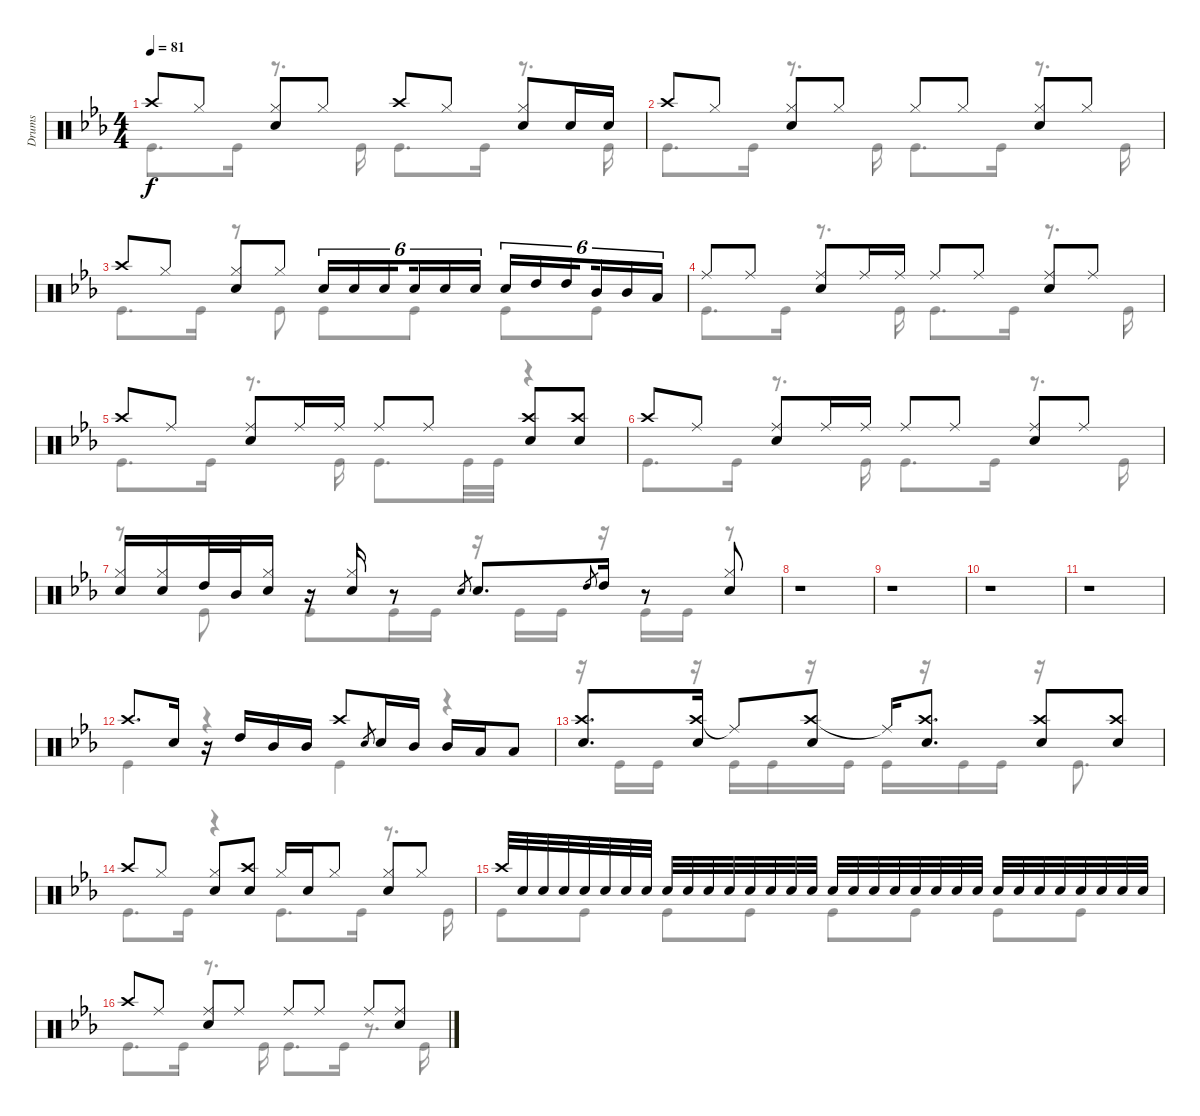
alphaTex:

\track ("Drums" "Drums") {instrument percussion}
\staff {score}
\articulation defaults
\voice
\ts (4 4)
\tempo 81
\clef neutral
\ks eb "Crash high (hit)".8{dy f beam Up} "Hi-Hat (closed)".8{beam Up}
("Hi-Hat (closed)" "Snare (hit) 2").8{beam Up} "Hi-Hat (closed)".8{beam Up} "Crash high (hit)".8{beam Up} "Hi-Hat (closed)".8{beam Up} ("Hi-Hat (closed)" "Snare (hit) 2").8{beam Up} "Snare (hit) 2".16{beam Up} "Snare (hit) 2".16{beam Up} |
"Crash high (hit)".8{beam Up} "Hi-Hat (closed)".8{beam Up} ("Hi-Hat (closed)" "Snare (hit) 2").8{beam Up} "Hi-Hat (closed)".8{beam Up} "Hi-Hat (closed)".8{beam Up} "Hi-Hat (closed)".8{beam Up} ("Hi-Hat (closed)" "Snare (hit) 2").8{beam Up} "Hi-Hat (closed)".8{beam Up} |
"Crash high (hit)".8{beam Up} "Hi-Hat (closed)".8{beam Up} ("Hi-Hat (closed)" "Snare (hit) 2").8{beam Up} "Hi-Hat (closed)".8{beam Up} "Snare (hit) 2".16{tu (6 4) beam Up} "Snare (hit) 2".16{tu (6 4) beam Up} "Snare (hit) 2".16{tu (6 4) beam Up beam splitsecondary} "Snare (hit) 2".16{tu (6 4) beam Up} "Snare (hit) 2".16{tu (6 4) beam Up} "Snare (hit) 2".16{tu (6 4) beam Up} "Snare (hit) 2".16{tu (6 4) beam Up} "High Tom (hit)".16{tu (6 4) beam Up} "High Tom (hit)".16{tu (6 4) beam Up beam splitsecondary} "Mid Tom (hit)".16{tu (6 4) beam Up} "Mid Tom (hit)".16{tu (6 4) beam Up} "Low Tom (hit)".16{tu (6 4) beam Up} |
"Ride (middle)".8{beam Up} "Ride (middle)".8{beam Up} ("Ride (middle)" "Snare (hit) 2").8{beam Up} "Ride (middle)".16{beam Up} "Ride (middle)".16{beam Up} "Ride (middle)".8{beam Up} "Ride (middle)".8{beam Up} ("Ride (middle)" "Snare (hit) 2").8{beam Up} "Ride (middle)".8{beam Up} |
"Crash high (hit)".8{beam Up} "Ride (middle)".8{beam Up} ("Ride (middle)" "Snare (hit) 2").8{beam Up} "Ride (middle)".16{beam Up} "Ride (middle)".16{beam Up} "Ride (middle)".8{beam Up} "Ride (middle)".8{beam Up} ("Crash high (hit)" "Snare (hit) 2").8{beam Up} ("Snare (hit) 2" "Crash high (hit)").8{beam Up} |
"Crash high (hit)".8{beam Up} "Ride (middle)".8{beam Up} ("Ride (middle)" "Snare (hit) 2").8{beam Up} "Ride (middle)".16{beam Up} "Ride (middle)".16{beam Up} "Ride (middle)".8{beam Up} "Ride (middle)".8{beam Up} ("Ride (middle)" "Snare (hit) 2").8{beam Up} "Ride (middle)".8{beam Up} |
("Snare (hit) 2" "Hi-Hat (closed)").16{beam Up} ("Hi-Hat (closed)" "Snare (hit) 2").16{beam Up} "High Tom (hit)".32{beam Up} "Mid Tom (hit)".32{beam Up} ("Snare (hit) 2" "Hi-Hat (closed)").16{beam Up} r.16 ("Snare (hit) 2" "Hi-Hat (closed)").16{beam Up} r.8 "Snare (hit) 2".8{gr} "Snare (hit) 2".8{d beam Up} "High Tom (hit)".8{gr} "High Tom (hit)".16{beam Up} r.8 ("Snare (hit) 2" "Hi-Hat (closed)").8{beam Up} |
r.1 |
r.1 |
r.1 |
r.1 |
"Crash high (hit)".8{d beam Up} "Snare (hit) 2".16{beam Up} r.16 "High Tom (hit)".16{beam Up} "Mid Tom (hit)".16{beam Up} "Mid Tom (hit)".16{beam Up} "Crash high (hit)".8{beam Up} "Snare (hit) 2".8{gr} "Snare (hit) 2".16{beam Up} "Mid Tom (hit)".16{beam Up} "Mid Tom (hit)".16{beam Up} "Low Tom (hit)".16{beam Up} "Low Tom (hit)".8{beam Up} |
("Snare (hit) 2" "Crash high (hit)").8{d beam Up} ("Crash high (hit)" "Snare (hit) 2").16{beam Up} "Ride (middle)"{t}.8{beam Up} ("Crash high (hit)" "Snare (hit) 2").8{beam Up} "Ride (middle)"{t}.16{beam Up} ("Crash high (hit)" "Snare (hit) 2").8{d beam Up} ("Snare (hit) 2" "Crash high (hit)").8{beam Up} ("Crash high (hit)" "Snare (hit) 2").8{beam Up} |
"Crash high (hit)".8{beam Up} "Hi-Hat (closed)".8{beam Up} ("Hi-Hat (closed)" "Snare (hit) 2").8{beam Up} ("Snare (hit) 2" "Crash high (hit)").8{beam Up} "Hi-Hat (closed)".16{beam Up} "Snare (hit) 2".16{beam Up} "Hi-Hat (closed)".8{beam Up} ("Snare (hit) 2" "Hi-Hat (closed)").8{beam Up} "Hi-Hat (closed)".8{beam Up} |
"Crash high (hit)".32{beam Up} "Snare (hit) 2".32{beam Up} "Snare (hit) 2".32{beam Up} "Snare (hit) 2".32{beam Up} "Snare (hit) 2".32{beam Up} "Snare (hit) 2".32{beam Up} "Snare (hit) 2".32{beam Up} "Snare (hit) 2".32{beam Up} "Snare (hit) 2".32{beam Up} "Snare (hit) 2".32{beam Up} "Snare (hit) 2".32{beam Up} "Snare (hit) 2".32{beam Up} "Snare (hit) 2".32{beam Up} "Snare (hit) 2".32{beam Up} "Snare (hit) 2".32{beam Up} "Snare (hit) 2".32{beam Up} "Snare (hit) 2".32{beam Up} "Snare (hit) 2".32{beam Up} "Snare (hit) 2".32{beam Up} "Snare (hit) 2".32{beam Up} "Snare (hit) 2".32{beam Up} "Snare (hit) 2".32{beam Up} "Snare (hit) 2".32{beam Up} "Snare (hit) 2".32{beam Up} "Snare (hit) 2".32{beam Up} "Snare (hit) 2".32{beam Up} "Snare (hit) 2".32{beam Up} "Snare (hit) 2".32{beam Up} "Snare (hit) 2".32{beam Up} "Snare (hit) 2".32{beam Up} "Snare (hit) 2".32{beam Up} "Snare (hit) 2".32{beam Up} |
"Crash high (hit)".8{beam Up} "Ride (middle)".8{beam Up} ("Ride (middle)" "Snare (hit) 2").8{beam Up} "Ride (middle)".8{beam Up} "Ride (middle)".8{beam Up} "Ride (middle)".8{beam Up} "Ride (middle)".8{beam Up} ("Ride (middle)" "Snare (hit) 2").8{beam Up}
\voice
\clef neutral
\ottava regular
\simile none
\ks eb "Kick (hit)".8{d dy f} "Kick (hit)".16
r.8{d} "Kick (hit)".16 "Kick (hit)".8{d} "Kick (hit)".16 r.8{d} "Kick (hit)".16 |
"Kick (hit)".8{d} "Kick (hit)".16 r.8{d} "Kick (hit)".16 "Kick (hit)".8{d} "Kick (hit)".16 r.8{d} "Kick (hit)".16 |
"Kick (hit)".8{d} "Kick (hit)".16 r.8 "Kick (hit)".8 "Kick (hit)".8 "Kick (hit)".8 "Kick (hit)".8 "Kick (hit)".8 |
"Kick (hit)".8{d} "Kick (hit)".16 r.8{d} "Kick (hit)".16 "Kick (hit)".8{d} "Kick (hit)".16 r.8{d} "Kick (hit)".16 |
"Kick (hit)".8{d} "Kick (hit)".16 r.8{d} "Kick (hit)".16 "Kick (hit)".8{d} "Kick (hit)".32 "Kick (hit)".32 r.4 |
"Kick (hit)".8{d} "Kick (hit)".16 r.8{d} "Kick (hit)".16 "Kick (hit)".8{d} "Kick (hit)".16 r.8{d} "Kick (hit)".16 |
r.8 "Kick (hit)".8 "Kick (hit)".8 "Kick (hit)".16 "Kick (hit)".16 r.16 "Kick (hit)".16 "Kick (hit)".16 r.16 "Kick (hit)".16 "Kick (hit)".16 r.8 |
r.1 |
r.1 |
r.1 |
r.1 |
"Kick (hit)".4 r.4 "Kick (hit)".4 r.4 |
r.16 "Kick (hit)".16 "Kick (hit)".16 r.16 "Kick (hit)".16 "Kick (hit)".16 r.16 "Kick (hit)".16 "Kick (hit)".16 r.16 "Kick (hit)".16 "Kick (hit)".16 r.16 "Kick (hit)".8{d} |
"Kick (hit)".8{d} "Kick (hit)".16 r.4 "Kick (hit)".8{d} "Kick (hit)".16 r.8{d} "Kick (hit)".16 |
"Kick (hit)".8 "Kick (hit)".8 "Kick (hit)".8 "Kick (hit)".8 "Kick (hit)".8 "Kick (hit)".8 "Kick (hit)".8 "Kick (hit)".8 |
"Kick (hit)".8{d} "Kick (hit)".16 r.8{d} "Kick (hit)".16 "Kick (hit)".8{d} "Kick (hit)".16 r.8{d} "Kick (hit)".16
